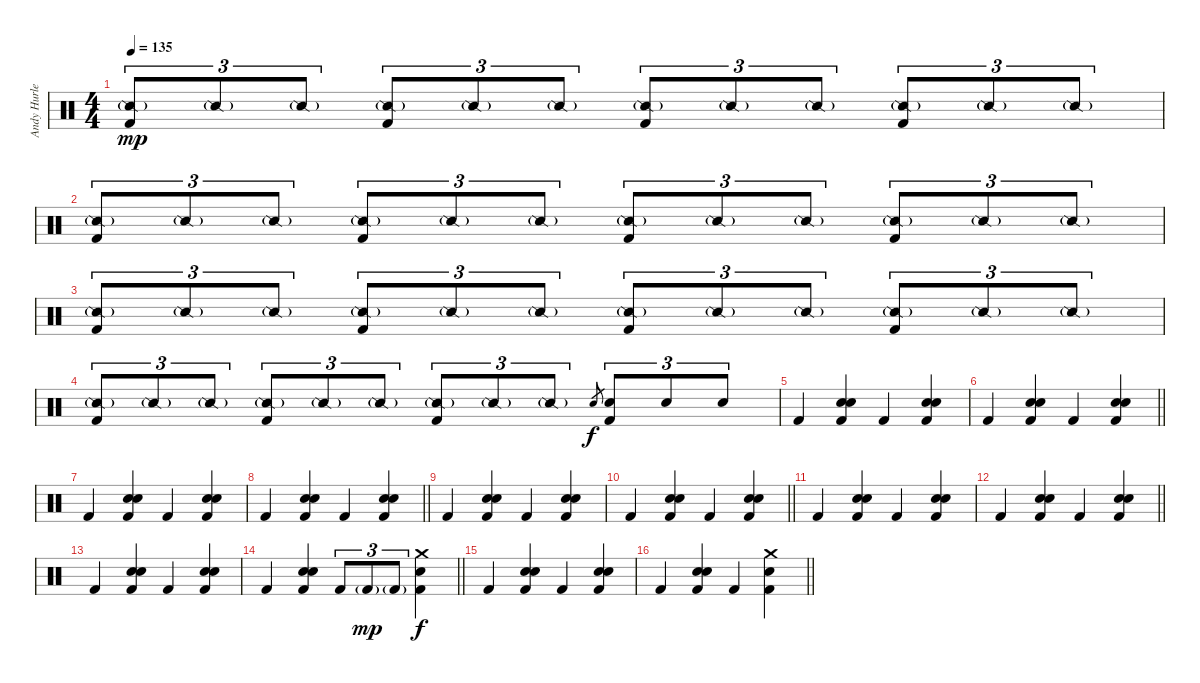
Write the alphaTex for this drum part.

\track ("Andy Hurley" "Andy Hurle") {instrument percussion}
\staff {score}
\articulation defaults
\ts (4 4)
\tempo 135
\clef neutral
\ks c
("Snare (side stick) 2"{g} "Kick (hit) 2").8{tu (3 2) dy mp} "Snare (side stick) 2"{g}.8{tu (3 2)} "Snare (side stick) 2"{g}.8{tu (3 2)} ("Snare (side stick) 2"{g} "Kick (hit) 2").8{tu (3 2)} "Snare (side stick) 2"{g}.8{tu (3 2)} "Snare (side stick) 2"{g}.8{tu (3 2)} ("Snare (side stick) 2"{g} "Kick (hit) 2").8{tu (3 2)} "Snare (side stick) 2"{g}.8{tu (3 2)} "Snare (side stick) 2"{g}.8{tu (3 2)} ("Snare (side stick) 2"{g} "Kick (hit) 2").8{tu (3 2)} "Snare (side stick) 2"{g}.8{tu (3 2)} "Snare (side stick) 2"{g}.8{tu (3 2)} |
("Snare (side stick) 2"{g} "Kick (hit) 2").8{tu (3 2)} "Snare (side stick) 2"{g}.8{tu (3 2)} "Snare (side stick) 2"{g}.8{tu (3 2)} ("Snare (side stick) 2"{g} "Kick (hit) 2").8{tu (3 2)} "Snare (side stick) 2"{g}.8{tu (3 2)} "Snare (side stick) 2"{g}.8{tu (3 2)} ("Snare (side stick) 2"{g} "Kick (hit) 2").8{tu (3 2)} "Snare (side stick) 2"{g}.8{tu (3 2)} "Snare (side stick) 2"{g}.8{tu (3 2)} ("Snare (side stick) 2"{g} "Kick (hit) 2").8{tu (3 2)} "Snare (side stick) 2"{g}.8{tu (3 2)} "Snare (side stick) 2"{g}.8{tu (3 2)} |
("Snare (side stick) 2"{g} "Kick (hit) 2").8{tu (3 2)} "Snare (side stick) 2"{g}.8{tu (3 2)} "Snare (side stick) 2"{g}.8{tu (3 2)} ("Snare (side stick) 2"{g} "Kick (hit) 2").8{tu (3 2)} "Snare (side stick) 2"{g}.8{tu (3 2)} "Snare (side stick) 2"{g}.8{tu (3 2)} ("Snare (side stick) 2"{g} "Kick (hit) 2").8{tu (3 2)} "Snare (side stick) 2"{g}.8{tu (3 2)} "Snare (side stick) 2"{g}.8{tu (3 2)} ("Snare (side stick) 2"{g} "Kick (hit) 2").8{tu (3 2)} "Snare (side stick) 2"{g}.8{tu (3 2)} "Snare (side stick) 2"{g}.8{tu (3 2)} |
("Snare (side stick) 2"{g} "Kick (hit) 2").8{tu (3 2)} "Snare (side stick) 2"{g}.8{tu (3 2)} "Snare (side stick) 2"{g}.8{tu (3 2)} ("Snare (side stick) 2"{g} "Kick (hit) 2").8{tu (3 2)} "Snare (side stick) 2"{g}.8{tu (3 2)} "Snare (side stick) 2"{g}.8{tu (3 2)} ("Snare (side stick) 2"{g} "Kick (hit) 2").8{tu (3 2)} "Snare (side stick) 2"{g}.8{tu (3 2)} "Snare (side stick) 2"{g}.8{tu (3 2)} "Electric Snare (hit)".8{gr dy f} ("Electric Snare (hit)" "Kick (hit) 2").8{tu (3 2)} "Electric Snare (hit)".8{tu (3 2)} "Electric Snare (hit)".8{tu (3 2)} |
"Kick (hit) 2".4 ("Electric Snare (hit)" "Electric Snare (hit)" "Kick (hit) 2").4 "Kick (hit) 2".4 ("Electric Snare (hit)" "Electric Snare (hit)" "Kick (hit) 2").4 |
\barLineRight lightlight "Kick (hit) 2".4
("Electric Snare (hit)" "Electric Snare (hit)" "Kick (hit) 2").4 "Kick (hit) 2".4 ("Electric Snare (hit)" "Electric Snare (hit)" "Kick (hit) 2").4 |
"Kick (hit) 2".4 ("Electric Snare (hit)" "Electric Snare (hit)" "Kick (hit) 2").4 "Kick (hit) 2".4 ("Electric Snare (hit)" "Electric Snare (hit)" "Kick (hit) 2").4 |
\barLineRight lightlight "Kick (hit) 2".4
("Electric Snare (hit)" "Electric Snare (hit)" "Kick (hit) 2").4 "Kick (hit) 2".4 ("Electric Snare (hit)" "Electric Snare (hit)" "Kick (hit) 2").4 |
"Kick (hit) 2".4 ("Electric Snare (hit)" "Electric Snare (hit)" "Kick (hit) 2").4 "Kick (hit) 2".4 ("Electric Snare (hit)" "Electric Snare (hit)" "Kick (hit) 2").4 |
\barLineRight lightlight "Kick (hit) 2".4
("Electric Snare (hit)" "Electric Snare (hit)" "Kick (hit) 2").4 "Kick (hit) 2".4 ("Electric Snare (hit)" "Electric Snare (hit)" "Kick (hit) 2").4 |
"Kick (hit) 2".4 ("Electric Snare (hit)" "Electric Snare (hit)" "Kick (hit) 2").4 "Kick (hit) 2".4 ("Electric Snare (hit)" "Electric Snare (hit)" "Kick (hit) 2").4 |
\barLineRight lightlight "Kick (hit) 2".4
("Electric Snare (hit)" "Electric Snare (hit)" "Kick (hit) 2").4 "Kick (hit) 2".4 ("Electric Snare (hit)" "Electric Snare (hit)" "Kick (hit) 2").4 |
"Kick (hit) 2".4 ("Electric Snare (hit)" "Electric Snare (hit)" "Kick (hit) 2").4 "Kick (hit) 2".4 ("Electric Snare (hit)" "Electric Snare (hit)" "Kick (hit) 2").4 |
\barLineRight lightlight "Kick (hit) 2".4
("Electric Snare (hit)" "Electric Snare (hit)" "Kick (hit) 2").4 "Kick (hit) 2".8{tu (3 2)} "Kick (hit) 2"{g}.8{tu (3 2) dy mp} "Kick (hit) 2"{g}.8{tu (3 2)} ("Crash medium (hit)" "Electric Snare (hit)" "Kick (hit) 2").4{dy f} |
"Kick (hit) 2".4 ("Electric Snare (hit)" "Electric Snare (hit)" "Kick (hit) 2").4 "Kick (hit) 2".4 ("Electric Snare (hit)" "Electric Snare (hit)" "Kick (hit) 2").4 |
\barLineRight lightlight "Kick (hit) 2".4
("Electric Snare (hit)" "Electric Snare (hit)" "Kick (hit) 2").4 "Kick (hit) 2".4 ("Crash medium (hit)" "Electric Snare (hit)" "Kick (hit) 2").4
